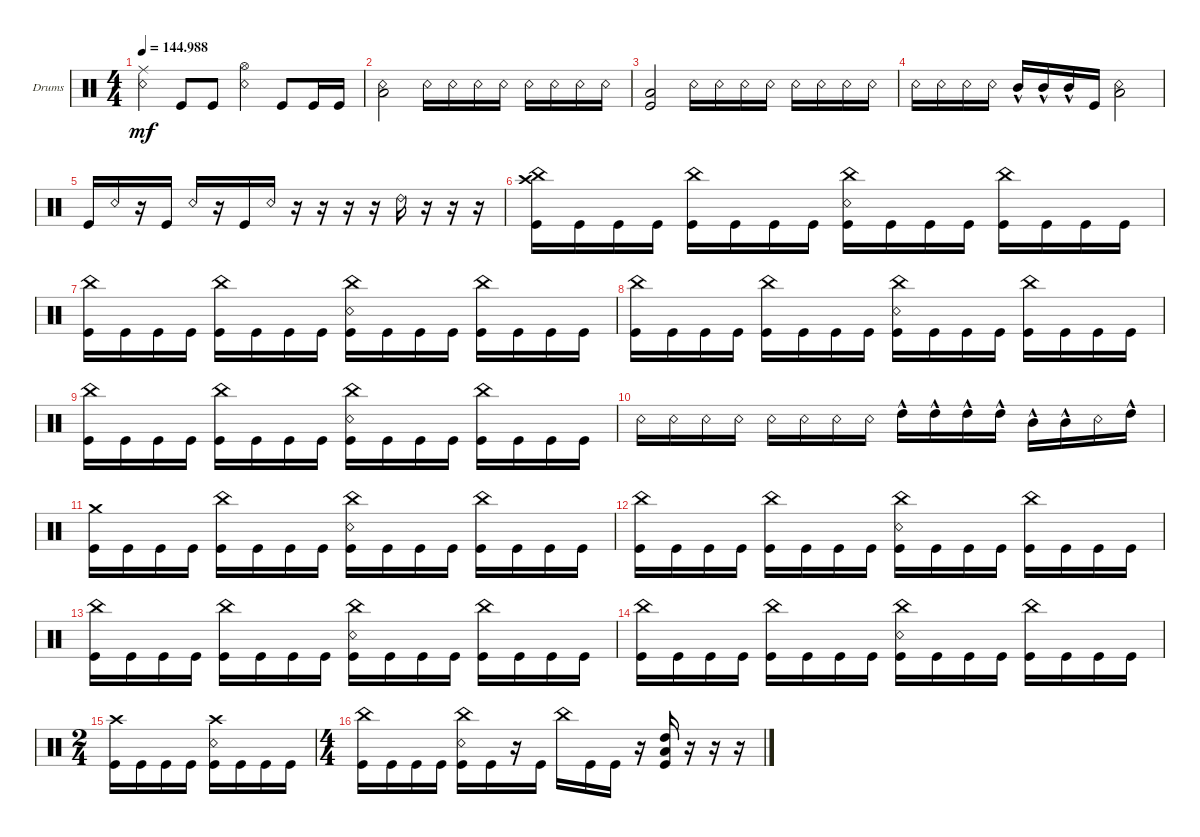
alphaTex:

\defaultSystemsLayout 4
\bracketExtendMode groupsimilarinstruments
\firstSystemTrackNameOrientation horizontal
\otherSystemsTrackNameOrientation horizontal
\track ("Drumkit" "Drums") {instrument percussion}
\staff {score}
\articulation defaults
\ts (4 4)
\tempo
144.988
\accidentals auto
\clef neutral
\ottava regular
\simile none
\ks c
("Snare (rim shot)" "Ride (middle)").4{dy mf} "Kick (hit)".8 "Kick (hit)".8 ("Snare (rim shot)" "Hi-Hat (open)").4 "Kick (hit)".8 "Kick (hit)".16 "Kick (hit)".16 |
("Low Tom (hit)" "Snare (rim shot)").2 "Snare (rim shot)".16 "Snare (rim shot)".16 "Snare (rim shot)".16 "Snare (rim shot)".16 "Snare (rim shot)".16 "Snare (rim shot)".16 "Snare (rim shot)".16 "Snare (rim shot)".16 |
("Kick (hit)" "Low Tom (hit)").2 "Snare (rim shot)".16 "Snare (rim shot)".16 "Snare (rim shot)".16 "Snare (rim shot)".16 "Snare (rim shot)".16 "Snare (rim shot)".16 "Snare (rim shot)".16 "Snare (rim shot)".16 |
"Snare (rim shot)".16 "Snare (rim shot)".16 "Snare (rim shot)".16 "Snare (rim shot)".16 "Mid Tom (hit)"{hac}.16 "Mid Tom (hit)"{hac}.16 "Mid Tom (hit)"{hac}.16 "Kick (hit)".16 ("Low Tom (hit)" "Snare (rim shot)").2 |
"Kick (hit)".16 "Snare (rim shot)".16 r.16 "Kick (hit)".16 "Snare (rim shot)".16 r.16 "Kick (hit)".16 "Snare (rim shot)".16 r.16 r.16 r.16 r.16 "Ride (bell) 2".16 r.16 r.16 r.16 |
("Kick (hit)" "China (hit)" "Crash high (hit)").16 "Kick (hit)".16 "Kick (hit)".16 "Kick (hit)".16 ("Kick (hit)" "China (hit)").16 "Kick (hit)".16 "Kick (hit)".16 "Kick (hit)".16 ("Kick (hit)" "China (hit)" "Snare (rim shot)").16 "Kick (hit)".16 "Kick (hit)".16 "Kick (hit)".16 ("Kick (hit)" "China (hit)").16 "Kick (hit)".16 "Kick (hit)".16 "Kick (hit)".16 |
("Kick (hit)" "China (hit)").16 "Kick (hit)".16 "Kick (hit)".16 "Kick (hit)".16 ("Kick (hit)" "China (hit)").16 "Kick (hit)".16 "Kick (hit)".16 "Kick (hit)".16 ("Kick (hit)" "China (hit)" "Snare (rim shot)").16 "Kick (hit)".16 "Kick (hit)".16 "Kick (hit)".16 ("Kick (hit)" "China (hit)").16 "Kick (hit)".16 "Kick (hit)".16 "Kick (hit)".16 |
("Kick (hit)" "China (hit)").16 "Kick (hit)".16 "Kick (hit)".16 "Kick (hit)".16 ("Kick (hit)" "China (hit)").16 "Kick (hit)".16 "Kick (hit)".16 "Kick (hit)".16 ("Kick (hit)" "China (hit)" "Snare (rim shot)").16 "Kick (hit)".16 "Kick (hit)".16 "Kick (hit)".16 ("Kick (hit)" "China (hit)").16 "Kick (hit)".16 "Kick (hit)".16 "Kick (hit)".16 |
("Kick (hit)" "China (hit)").16 "Kick (hit)".16 "Kick (hit)".16 "Kick (hit)".16 ("Kick (hit)" "China (hit)").16 "Kick (hit)".16 "Kick (hit)".16 "Kick (hit)".16 ("Kick (hit)" "China (hit)" "Snare (rim shot)").16 "Kick (hit)".16 "Kick (hit)".16 "Kick (hit)".16 ("Kick (hit)" "China (hit)").16 "Kick (hit)".16 "Kick (hit)".16 "Kick (hit)".16 |
"Snare (rim shot)".16 "Snare (rim shot)".16 "Snare (rim shot)".16 "Snare (rim shot)".16 "Snare (rim shot)".16 "Snare (rim shot)".16 "Snare (rim shot)".16 "Snare (rim shot)".16 "High Tom (hit)"{hac}.16 "High Tom (hit)"{hac}.16 "High Tom (hit)"{hac}.16 "High Tom (hit)"{hac}.16 "Mid Tom (hit)"{hac}.16 "Mid Tom (hit)"{hac}.16 "Snare (rim shot)".16 "High Tom (hit)"{hac}.16 |
("Kick (hit)" "Crash medium (hit)").16 "Kick (hit)".16 "Kick (hit)".16 "Kick (hit)".16 ("Kick (hit)" "China (hit)").16 "Kick (hit)".16 "Kick (hit)".16 "Kick (hit)".16 ("Kick (hit)" "China (hit)" "Snare (rim shot)").16 "Kick (hit)".16 "Kick (hit)".16 "Kick (hit)".16 ("Kick (hit)" "China (hit)").16 "Kick (hit)".16 "Kick (hit)".16 "Kick (hit)".16 |
("Kick (hit)" "China (hit)").16 "Kick (hit)".16 "Kick (hit)".16 "Kick (hit)".16 ("Kick (hit)" "China (hit)").16 "Kick (hit)".16 "Kick (hit)".16 "Kick (hit)".16 ("Kick (hit)" "China (hit)" "Snare (rim shot)").16 "Kick (hit)".16 "Kick (hit)".16 "Kick (hit)".16 ("Kick (hit)" "China (hit)").16 "Kick (hit)".16 "Kick (hit)".16 "Kick (hit)".16 |
("Kick (hit)" "China (hit)").16 "Kick (hit)".16 "Kick (hit)".16 "Kick (hit)".16 ("Kick (hit)" "China (hit)").16 "Kick (hit)".16 "Kick (hit)".16 "Kick (hit)".16 ("Kick (hit)" "China (hit)" "Snare (rim shot)").16 "Kick (hit)".16 "Kick (hit)".16 "Kick (hit)".16 ("Kick (hit)" "China (hit)").16 "Kick (hit)".16 "Kick (hit)".16 "Kick (hit)".16 |
("Kick (hit)" "China (hit)").16 "Kick (hit)".16 "Kick (hit)".16 "Kick (hit)".16 ("Kick (hit)" "China (hit)").16 "Kick (hit)".16 "Kick (hit)".16 "Kick (hit)".16 ("Kick (hit)" "China (hit)" "Snare (rim shot)").16 "Kick (hit)".16 "Kick (hit)".16 "Kick (hit)".16 ("Kick (hit)" "China (hit)").16 "Kick (hit)".16 "Kick (hit)".16 "Kick (hit)".16 |
\ts (2 4)
("Kick (hit)" "Crash high (hit)").16 "Kick (hit)".16 "Kick (hit)".16 "Kick (hit)".16 ("Snare (rim shot)" "Kick (hit)" "Crash high (hit)").16 "Kick (hit)".16 "Kick (hit)".16 "Kick (hit)".16 |
\ts (4 4)
("Kick (hit)" "China (hit)").16 "Kick (hit)".16 "Kick (hit)".16 "Kick (hit)".16 ("Kick (hit)" "China (hit)" "Snare (rim shot)").16 "Kick (hit)".16 r.16 "Kick (hit)".16 "China (hit)".16 "Kick (hit)".16 "Kick (hit)".16 r.16 ("Kick (hit)" "Low Tom (hit)" "High Tom (hit)").16 r.16 r.16 r.16
